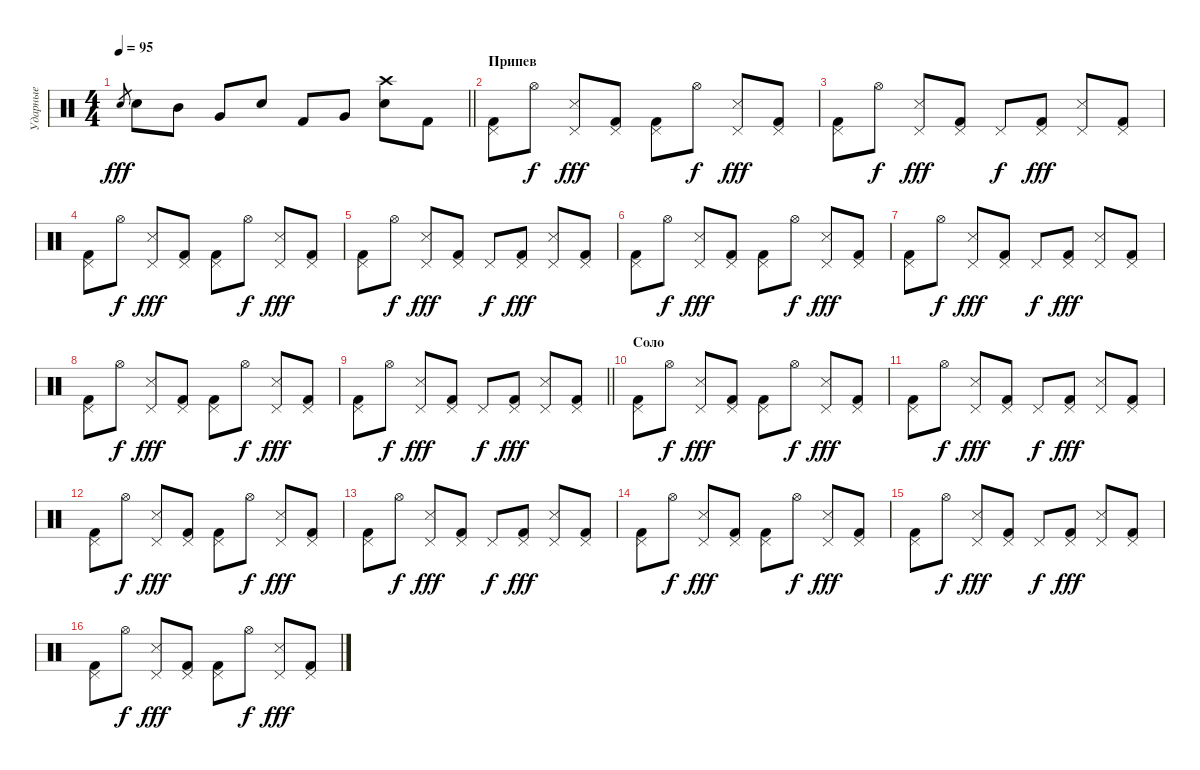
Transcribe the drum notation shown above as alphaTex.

\track ("Ударные" "Ударные") {instrument percussion}
\staff {score}
\articulation defaults
\ts (4 4)
\tempo 95
\clef neutral
\barLineRight lightlight
\ks c "Electric Snare (hit)".8{gr dy fff} "Electric Snare (hit)".8 "Mid Tom (hit)".8 "Very Low Tom (hit)".8 "Electric Snare (hit)".8 "Kick (hit) 2".8 "Very Low Tom (hit)".8
("Crash high (hit)" "Electric Snare (hit)").8 "Kick (hit) 2".8 |
\section ("" "Припев")
("Pedal Hi-Hat (hit)" "Kick (hit) 2").8 "Hi-Hat (open)".8{dy f} ("Pedal Hi-Hat (hit)" "Snare (side stick) 3").8{dy fff} ("Pedal Hi-Hat (hit)" "Kick (hit) 2").8 ("Pedal Hi-Hat (hit)" "Kick (hit) 2").8 "Hi-Hat (open)".8{dy f} ("Pedal Hi-Hat (hit)" "Snare (side stick) 3").8{dy fff} ("Pedal Hi-Hat (hit)" "Kick (hit) 2").8 |
("Pedal Hi-Hat (hit)" "Kick (hit) 2").8 "Hi-Hat (open)".8{dy f} ("Pedal Hi-Hat (hit)" "Snare (side stick) 3").8{dy fff} ("Pedal Hi-Hat (hit)" "Kick (hit) 2").8 "Pedal Hi-Hat (hit)".8{dy f} ("Pedal Hi-Hat (hit)" "Kick (hit) 2").8{dy fff} ("Pedal Hi-Hat (hit)" "Snare (side stick) 3").8 ("Pedal Hi-Hat (hit)" "Kick (hit) 2").8 |
("Pedal Hi-Hat (hit)" "Kick (hit) 2").8 "Hi-Hat (open)".8{dy f} ("Pedal Hi-Hat (hit)" "Snare (side stick) 3").8{dy fff} ("Pedal Hi-Hat (hit)" "Kick (hit) 2").8 ("Pedal Hi-Hat (hit)" "Kick (hit) 2").8 "Hi-Hat (open)".8{dy f} ("Pedal Hi-Hat (hit)" "Snare (side stick) 3").8{dy fff} ("Pedal Hi-Hat (hit)" "Kick (hit) 2").8 |
("Pedal Hi-Hat (hit)" "Kick (hit) 2").8 "Hi-Hat (open)".8{dy f} ("Pedal Hi-Hat (hit)" "Snare (side stick) 3").8{dy fff} ("Pedal Hi-Hat (hit)" "Kick (hit) 2").8 "Pedal Hi-Hat (hit)".8{dy f} ("Pedal Hi-Hat (hit)" "Kick (hit) 2").8{dy fff} ("Pedal Hi-Hat (hit)" "Snare (side stick) 3").8 ("Pedal Hi-Hat (hit)" "Kick (hit) 2").8 |
("Pedal Hi-Hat (hit)" "Kick (hit) 2").8 "Hi-Hat (open)".8{dy f} ("Pedal Hi-Hat (hit)" "Snare (side stick) 3").8{dy fff} ("Pedal Hi-Hat (hit)" "Kick (hit) 2").8 ("Pedal Hi-Hat (hit)" "Kick (hit) 2").8 "Hi-Hat (open)".8{dy f} ("Pedal Hi-Hat (hit)" "Snare (side stick) 3").8{dy fff} ("Pedal Hi-Hat (hit)" "Kick (hit) 2").8 |
("Pedal Hi-Hat (hit)" "Kick (hit) 2").8 "Hi-Hat (open)".8{dy f} ("Pedal Hi-Hat (hit)" "Snare (side stick) 3").8{dy fff} ("Pedal Hi-Hat (hit)" "Kick (hit) 2").8 "Pedal Hi-Hat (hit)".8{dy f} ("Pedal Hi-Hat (hit)" "Kick (hit) 2").8{dy fff} ("Pedal Hi-Hat (hit)" "Snare (side stick) 3").8 ("Pedal Hi-Hat (hit)" "Kick (hit) 2").8 |
("Pedal Hi-Hat (hit)" "Kick (hit) 2").8 "Hi-Hat (open)".8{dy f} ("Pedal Hi-Hat (hit)" "Snare (side stick) 3").8{dy fff} ("Pedal Hi-Hat (hit)" "Kick (hit) 2").8 ("Pedal Hi-Hat (hit)" "Kick (hit) 2").8 "Hi-Hat (open)".8{dy f} ("Pedal Hi-Hat (hit)" "Snare (side stick) 3").8{dy fff} ("Pedal Hi-Hat (hit)" "Kick (hit) 2").8 |
\barLineRight lightlight
("Pedal Hi-Hat (hit)" "Kick (hit) 2").8 "Hi-Hat (open)".8{dy f} ("Pedal Hi-Hat (hit)" "Snare (side stick) 3").8{dy fff} ("Pedal Hi-Hat (hit)" "Kick (hit) 2").8 "Pedal Hi-Hat (hit)".8{dy f} ("Pedal Hi-Hat (hit)" "Kick (hit) 2").8{dy fff} ("Pedal Hi-Hat (hit)" "Snare (side stick) 3").8 ("Pedal Hi-Hat (hit)" "Kick (hit) 2").8 |
\section ("" "Соло")
("Pedal Hi-Hat (hit)" "Kick (hit) 2").8 "Hi-Hat (open)".8{dy f} ("Pedal Hi-Hat (hit)" "Snare (side stick) 3").8{dy fff} ("Pedal Hi-Hat (hit)" "Kick (hit) 2").8 ("Pedal Hi-Hat (hit)" "Kick (hit) 2").8 "Hi-Hat (open)".8{dy f} ("Pedal Hi-Hat (hit)" "Snare (side stick) 3").8{dy fff} ("Pedal Hi-Hat (hit)" "Kick (hit) 2").8 |
("Pedal Hi-Hat (hit)" "Kick (hit) 2").8 "Hi-Hat (open)".8{dy f} ("Pedal Hi-Hat (hit)" "Snare (side stick) 3").8{dy fff} ("Pedal Hi-Hat (hit)" "Kick (hit) 2").8 "Pedal Hi-Hat (hit)".8{dy f} ("Pedal Hi-Hat (hit)" "Kick (hit) 2").8{dy fff} ("Pedal Hi-Hat (hit)" "Snare (side stick) 3").8 ("Pedal Hi-Hat (hit)" "Kick (hit) 2").8 |
("Pedal Hi-Hat (hit)" "Kick (hit) 2").8 "Hi-Hat (open)".8{dy f} ("Pedal Hi-Hat (hit)" "Snare (side stick) 3").8{dy fff} ("Pedal Hi-Hat (hit)" "Kick (hit) 2").8 ("Pedal Hi-Hat (hit)" "Kick (hit) 2").8 "Hi-Hat (open)".8{dy f} ("Pedal Hi-Hat (hit)" "Snare (side stick) 3").8{dy fff} ("Pedal Hi-Hat (hit)" "Kick (hit) 2").8 |
("Pedal Hi-Hat (hit)" "Kick (hit) 2").8 "Hi-Hat (open)".8{dy f} ("Pedal Hi-Hat (hit)" "Snare (side stick) 3").8{dy fff} ("Pedal Hi-Hat (hit)" "Kick (hit) 2").8 "Pedal Hi-Hat (hit)".8{dy f} ("Pedal Hi-Hat (hit)" "Kick (hit) 2").8{dy fff} ("Pedal Hi-Hat (hit)" "Snare (side stick) 3").8 ("Pedal Hi-Hat (hit)" "Kick (hit) 2").8 |
("Pedal Hi-Hat (hit)" "Kick (hit) 2").8 "Hi-Hat (open)".8{dy f} ("Pedal Hi-Hat (hit)" "Snare (side stick) 3").8{dy fff} ("Pedal Hi-Hat (hit)" "Kick (hit) 2").8 ("Pedal Hi-Hat (hit)" "Kick (hit) 2").8 "Hi-Hat (open)".8{dy f} ("Pedal Hi-Hat (hit)" "Snare (side stick) 3").8{dy fff} ("Pedal Hi-Hat (hit)" "Kick (hit) 2").8 |
("Pedal Hi-Hat (hit)" "Kick (hit) 2").8 "Hi-Hat (open)".8{dy f} ("Pedal Hi-Hat (hit)" "Snare (side stick) 3").8{dy fff} ("Pedal Hi-Hat (hit)" "Kick (hit) 2").8 "Pedal Hi-Hat (hit)".8{dy f} ("Pedal Hi-Hat (hit)" "Kick (hit) 2").8{dy fff} ("Pedal Hi-Hat (hit)" "Snare (side stick) 3").8 ("Pedal Hi-Hat (hit)" "Kick (hit) 2").8 |
("Pedal Hi-Hat (hit)" "Kick (hit) 2").8 "Hi-Hat (open)".8{dy f} ("Pedal Hi-Hat (hit)" "Snare (side stick) 3").8{dy fff} ("Pedal Hi-Hat (hit)" "Kick (hit) 2").8 ("Pedal Hi-Hat (hit)" "Kick (hit) 2").8 "Hi-Hat (open)".8{dy f} ("Pedal Hi-Hat (hit)" "Snare (side stick) 3").8{dy fff} ("Pedal Hi-Hat (hit)" "Kick (hit) 2").8
